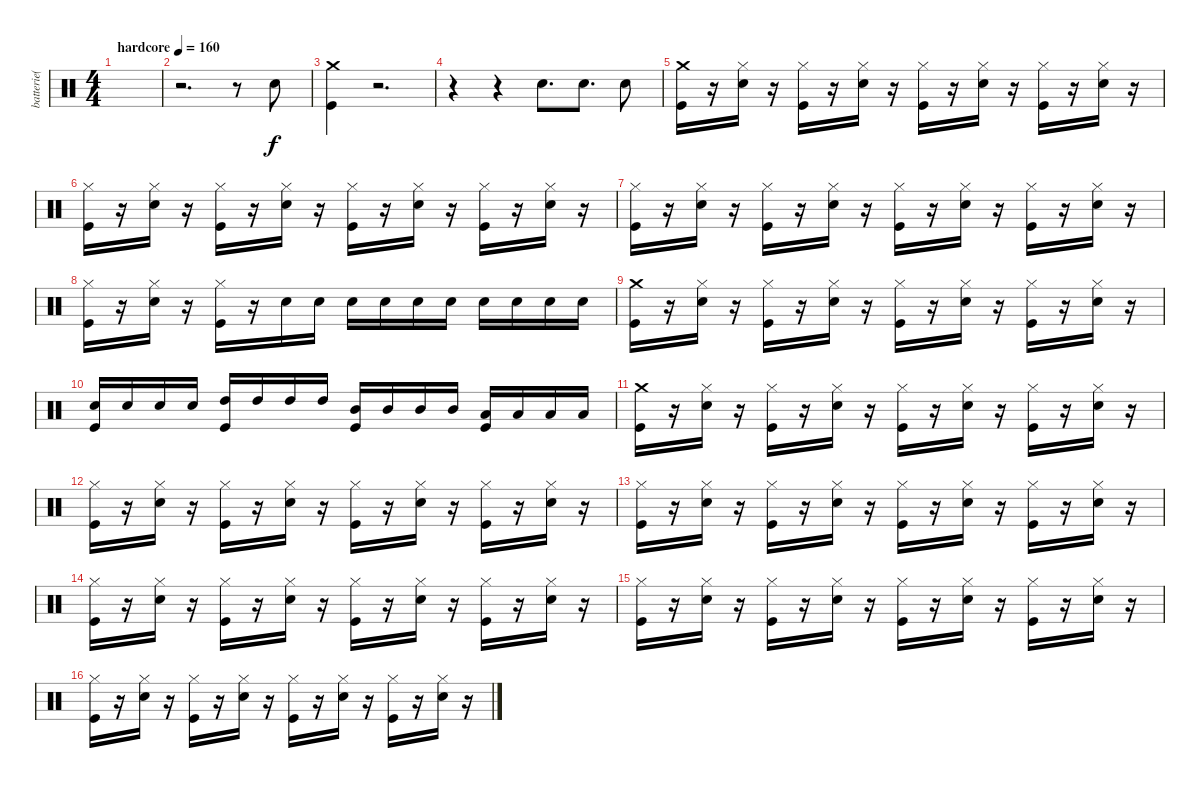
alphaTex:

\track ("batterie(  Jeff Nelson )" "batterie( ") {instrument percussion}
\staff {score}
\articulation defaults
\ts (4 4)
\tempo (160 "hardcore")
\clef neutral
\ks c
|
r.2{d} r.8 "Snare (hit) 2".8 |
("Crash medium (hit)" "Kick (hit)").4 r.2{d} |
r.4 r.4 "Snare (hit) 2".8{d} "Snare (hit) 2".8{d} "Snare (hit) 2".8 |
("Crash medium (hit)" "Kick (hit)").16 r.16 ("Hi-Hat (closed)" "Snare (hit) 2").16 r.16 ("Hi-Hat (closed)" "Kick (hit)").16 r.16 ("Hi-Hat (closed)" "Snare (hit) 2").16 r.16 ("Hi-Hat (closed)" "Kick (hit)").16 r.16 ("Hi-Hat (closed)" "Snare (hit) 2").16 r.16 ("Hi-Hat (closed)" "Kick (hit)").16 r.16 ("Hi-Hat (closed)" "Snare (hit) 2").16 r.16 |
("Hi-Hat (closed)" "Kick (hit)").16 r.16 ("Hi-Hat (closed)" "Snare (hit) 2").16 r.16 ("Hi-Hat (closed)" "Kick (hit)").16 r.16 ("Hi-Hat (closed)" "Snare (hit) 2").16 r.16 ("Hi-Hat (closed)" "Kick (hit)").16 r.16 ("Hi-Hat (closed)" "Snare (hit) 2").16 r.16 ("Hi-Hat (closed)" "Kick (hit)").16 r.16 ("Hi-Hat (closed)" "Snare (hit) 2").16 r.16 |
("Hi-Hat (closed)" "Kick (hit)").16 r.16 ("Hi-Hat (closed)" "Snare (hit) 2").16 r.16 ("Hi-Hat (closed)" "Kick (hit)").16 r.16 ("Hi-Hat (closed)" "Snare (hit) 2").16 r.16 ("Hi-Hat (closed)" "Kick (hit)").16 r.16 ("Hi-Hat (closed)" "Snare (hit) 2").16 r.16 ("Hi-Hat (closed)" "Kick (hit)").16 r.16 ("Hi-Hat (closed)" "Snare (hit) 2").16 r.16 |
("Hi-Hat (closed)" "Kick (hit)").16 r.16 ("Hi-Hat (closed)" "Snare (hit) 2").16 r.16 ("Hi-Hat (closed)" "Kick (hit)").16 r.16 "Snare (hit) 2".16 "Snare (hit) 2".16 "Snare (hit) 2".16 "Snare (hit) 2".16 "Snare (hit) 2".16 "Snare (hit) 2".16 "Snare (hit) 2".16 "Snare (hit) 2".16 "Snare (hit) 2".16 "Snare (hit) 2".16 |
("Crash medium (hit)" "Kick (hit)").16 r.16 ("Hi-Hat (closed)" "Snare (hit) 2").16 r.16 ("Hi-Hat (closed)" "Kick (hit)").16 r.16 ("Hi-Hat (closed)" "Snare (hit) 2").16 r.16 ("Hi-Hat (closed)" "Kick (hit)").16 r.16 ("Hi-Hat (closed)" "Snare (hit) 2").16 r.16 ("Hi-Hat (closed)" "Kick (hit)").16 r.16 ("Hi-Hat (closed)" "Snare (hit) 2").16 r.16 |
("Snare (hit) 2" "Kick (hit)").16 "Snare (hit) 2".16 "Snare (hit) 2".16 "Snare (hit) 2".16 ("High Tom (hit)" "Kick (hit)").16 "High Tom (hit)".16 "High Tom (hit)".16 "High Tom (hit)".16 ("Mid Tom (hit)" "Kick (hit)").16 "Mid Tom (hit)".16 "Mid Tom (hit)".16 "Mid Tom (hit)".16 ("Low Floor Tom (hit)" "Kick (hit)").16 "Low Floor Tom (hit)".16 "Low Floor Tom (hit)".16 "Low Floor Tom (hit)".16 |
("Crash medium (hit)" "Kick (hit)").16 r.16 ("Hi-Hat (closed)" "Snare (hit) 2").16 r.16 ("Hi-Hat (closed)" "Kick (hit)").16 r.16 ("Hi-Hat (closed)" "Snare (hit) 2").16 r.16 ("Hi-Hat (closed)" "Kick (hit)").16 r.16 ("Hi-Hat (closed)" "Snare (hit) 2").16 r.16 ("Hi-Hat (closed)" "Kick (hit)").16 r.16 ("Hi-Hat (closed)" "Snare (hit) 2").16 r.16 |
("Hi-Hat (closed)" "Kick (hit)").16 r.16 ("Hi-Hat (closed)" "Snare (hit) 2").16 r.16 ("Hi-Hat (closed)" "Kick (hit)").16 r.16 ("Hi-Hat (closed)" "Snare (hit) 2").16 r.16 ("Hi-Hat (closed)" "Kick (hit)").16 r.16 ("Hi-Hat (closed)" "Snare (hit) 2").16 r.16 ("Hi-Hat (closed)" "Kick (hit)").16 r.16 ("Hi-Hat (closed)" "Snare (hit) 2").16 r.16 |
("Hi-Hat (closed)" "Kick (hit)").16 r.16 ("Hi-Hat (closed)" "Snare (hit) 2").16 r.16 ("Hi-Hat (closed)" "Kick (hit)").16 r.16 ("Hi-Hat (closed)" "Snare (hit) 2").16 r.16 ("Hi-Hat (closed)" "Kick (hit)").16 r.16 ("Hi-Hat (closed)" "Snare (hit) 2").16 r.16 ("Hi-Hat (closed)" "Kick (hit)").16 r.16 ("Hi-Hat (closed)" "Snare (hit) 2").16 r.16 |
("Hi-Hat (closed)" "Kick (hit)").16 r.16 ("Hi-Hat (closed)" "Snare (hit) 2").16 r.16 ("Hi-Hat (closed)" "Kick (hit)").16 r.16 ("Hi-Hat (closed)" "Snare (hit) 2").16 r.16 ("Hi-Hat (closed)" "Kick (hit)").16 r.16 ("Hi-Hat (closed)" "Snare (hit) 2").16 r.16 ("Hi-Hat (closed)" "Kick (hit)").16 r.16 ("Hi-Hat (closed)" "Snare (hit) 2").16 r.16 |
("Hi-Hat (closed)" "Kick (hit)").16 r.16 ("Hi-Hat (closed)" "Snare (hit) 2").16 r.16 ("Hi-Hat (closed)" "Kick (hit)").16 r.16 ("Hi-Hat (closed)" "Snare (hit) 2").16 r.16 ("Hi-Hat (closed)" "Kick (hit)").16 r.16 ("Hi-Hat (closed)" "Snare (hit) 2").16 r.16 ("Hi-Hat (closed)" "Kick (hit)").16 r.16 ("Hi-Hat (closed)" "Snare (hit) 2").16 r.16 |
("Hi-Hat (closed)" "Kick (hit)").16 r.16 ("Hi-Hat (closed)" "Snare (hit) 2").16 r.16 ("Hi-Hat (closed)" "Kick (hit)").16 r.16 ("Hi-Hat (closed)" "Snare (hit) 2").16 r.16 ("Hi-Hat (closed)" "Kick (hit)").16 r.16 ("Hi-Hat (closed)" "Snare (hit) 2").16 r.16 ("Hi-Hat (closed)" "Kick (hit)").16 r.16 ("Hi-Hat (closed)" "Snare (hit) 2").16 r.16
